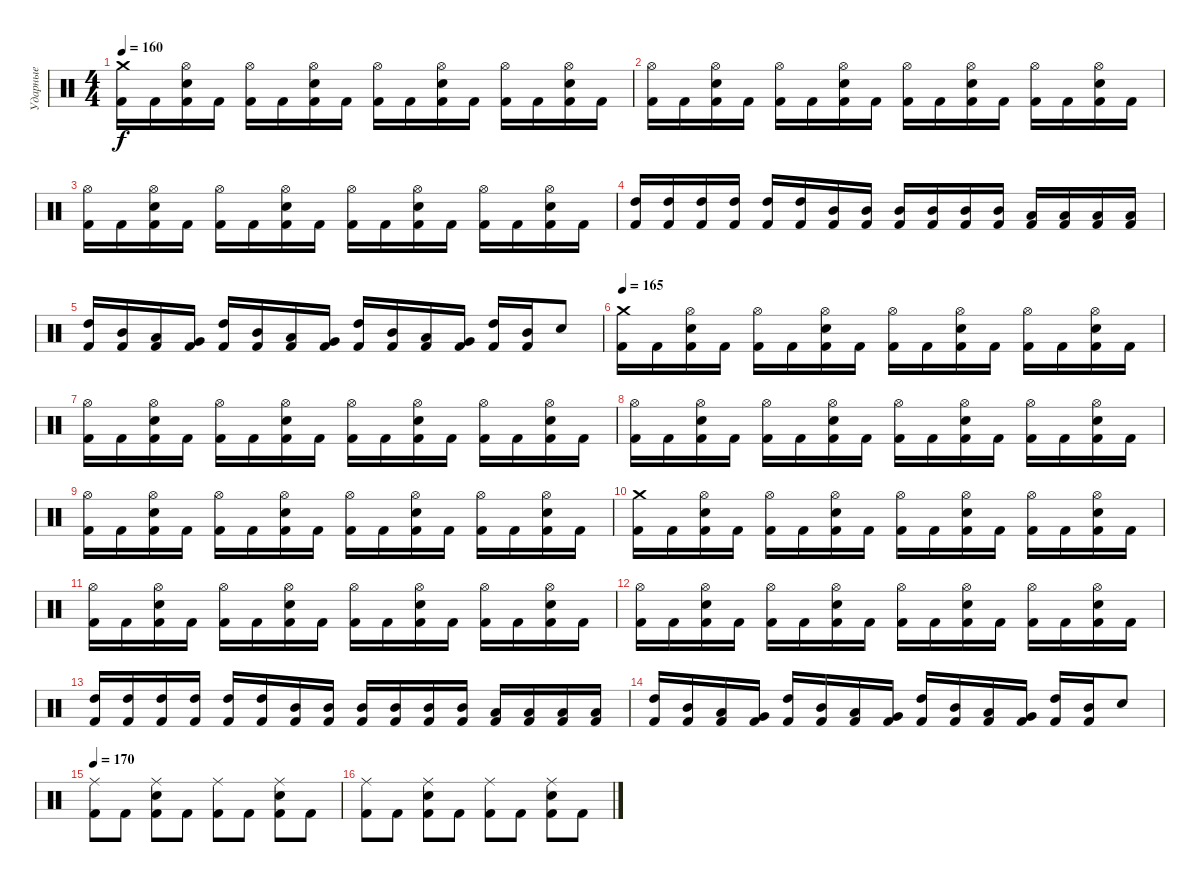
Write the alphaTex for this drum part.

\track ("Ударные" "Ударные") {instrument percussion}
\staff {score}
\articulation defaults
\ts (4 4)
\tempo 160
\clef neutral
\ks c
("Kick (hit) 2" "Crash medium (hit)").16{dy f} "Kick (hit) 2".16 ("Kick (hit) 2" "Electric Snare (hit)" "Hi-Hat (open)").16 "Kick (hit) 2".16 ("Kick (hit) 2" "Hi-Hat (open)").16 "Kick (hit) 2".16 ("Kick (hit) 2" "Electric Snare (hit)" "Hi-Hat (open)").16 "Kick (hit) 2".16 ("Kick (hit) 2" "Hi-Hat (open)").16 "Kick (hit) 2".16 ("Kick (hit) 2" "Electric Snare (hit)" "Hi-Hat (open)").16 "Kick (hit) 2".16 ("Kick (hit) 2" "Hi-Hat (open)").16 "Kick (hit) 2".16 ("Kick (hit) 2" "Electric Snare (hit)" "Hi-Hat (open)").16 "Kick (hit) 2".16 |
("Kick (hit) 2" "Hi-Hat (open)").16 "Kick (hit) 2".16 ("Kick (hit) 2" "Electric Snare (hit)" "Hi-Hat (open)").16 "Kick (hit) 2".16 ("Kick (hit) 2" "Hi-Hat (open)").16 "Kick (hit) 2".16 ("Kick (hit) 2" "Electric Snare (hit)" "Hi-Hat (open)").16 "Kick (hit) 2".16 ("Kick (hit) 2" "Hi-Hat (open)").16 "Kick (hit) 2".16 ("Kick (hit) 2" "Electric Snare (hit)" "Hi-Hat (open)").16 "Kick (hit) 2".16 ("Kick (hit) 2" "Hi-Hat (open)").16 "Kick (hit) 2".16 ("Kick (hit) 2" "Electric Snare (hit)" "Hi-Hat (open)").16 "Kick (hit) 2".16 |
("Kick (hit) 2" "Hi-Hat (open)").16 "Kick (hit) 2".16 ("Kick (hit) 2" "Electric Snare (hit)" "Hi-Hat (open)").16 "Kick (hit) 2".16 ("Kick (hit) 2" "Hi-Hat (open)").16 "Kick (hit) 2".16 ("Kick (hit) 2" "Electric Snare (hit)" "Hi-Hat (open)").16 "Kick (hit) 2".16 ("Kick (hit) 2" "Hi-Hat (open)").16 "Kick (hit) 2".16 ("Kick (hit) 2" "Electric Snare (hit)" "Hi-Hat (open)").16 "Kick (hit) 2".16 ("Kick (hit) 2" "Hi-Hat (open)").16 "Kick (hit) 2".16 ("Kick (hit) 2" "Electric Snare (hit)" "Hi-Hat (open)").16 "Kick (hit) 2".16 |
("Kick (hit) 2" "High Tom (hit)").16 ("Kick (hit) 2" "High Tom (hit)").16 ("Kick (hit) 2" "High Tom (hit)").16 ("Kick (hit) 2" "High Tom (hit)").16 ("Kick (hit) 2" "High Tom (hit)").16 ("Kick (hit) 2" "High Tom (hit)").16 ("Kick (hit) 2" "Mid Tom (hit)").16 ("Kick (hit) 2" "Mid Tom (hit)").16 ("Kick (hit) 2" "Mid Tom (hit)").16 ("Kick (hit) 2" "Mid Tom (hit)").16 ("Kick (hit) 2" "Mid Tom (hit)").16 ("Kick (hit) 2" "Mid Tom (hit)").16 ("Kick (hit) 2" "Low Tom (hit)").16 ("Kick (hit) 2" "Low Tom (hit)").16 ("Kick (hit) 2" "Low Tom (hit)").16 ("Kick (hit) 2" "Low Tom (hit)").16 |
("Kick (hit) 2" "High Tom (hit)").16 ("Kick (hit) 2" "Mid Tom (hit)").16 ("Kick (hit) 2" "Low Tom (hit)").16 ("Kick (hit) 2" "Very Low Tom (hit)").16 ("Kick (hit) 2" "High Tom (hit)").16 ("Kick (hit) 2" "Mid Tom (hit)").16 ("Kick (hit) 2" "Low Tom (hit)").16 ("Kick (hit) 2" "Very Low Tom (hit)").16 ("Kick (hit) 2" "High Tom (hit)").16 ("Kick (hit) 2" "Mid Tom (hit)").16 ("Kick (hit) 2" "Low Tom (hit)").16 ("Kick (hit) 2" "Very Low Tom (hit)").16 ("Kick (hit) 2" "High Tom (hit)").16 ("Kick (hit) 2" "Mid Tom (hit)").16 "Electric Snare (hit)".8 |
\tempo 165
("Kick (hit) 2" "Crash medium (hit)").16 "Kick (hit) 2".16 ("Kick (hit) 2" "Electric Snare (hit)" "Hi-Hat (open)").16 "Kick (hit) 2".16 ("Kick (hit) 2" "Hi-Hat (open)").16 "Kick (hit) 2".16 ("Kick (hit) 2" "Electric Snare (hit)" "Hi-Hat (open)").16 "Kick (hit) 2".16 ("Kick (hit) 2" "Hi-Hat (open)").16 "Kick (hit) 2".16 ("Kick (hit) 2" "Electric Snare (hit)" "Hi-Hat (open)").16 "Kick (hit) 2".16 ("Kick (hit) 2" "Hi-Hat (open)").16 "Kick (hit) 2".16 ("Kick (hit) 2" "Electric Snare (hit)" "Hi-Hat (open)").16 "Kick (hit) 2".16 |
("Kick (hit) 2" "Hi-Hat (open)").16 "Kick (hit) 2".16 ("Kick (hit) 2" "Electric Snare (hit)" "Hi-Hat (open)").16 "Kick (hit) 2".16 ("Kick (hit) 2" "Hi-Hat (open)").16 "Kick (hit) 2".16 ("Kick (hit) 2" "Electric Snare (hit)" "Hi-Hat (open)").16 "Kick (hit) 2".16 ("Kick (hit) 2" "Hi-Hat (open)").16 "Kick (hit) 2".16 ("Kick (hit) 2" "Electric Snare (hit)" "Hi-Hat (open)").16 "Kick (hit) 2".16 ("Kick (hit) 2" "Hi-Hat (open)").16 "Kick (hit) 2".16 ("Kick (hit) 2" "Electric Snare (hit)" "Hi-Hat (open)").16 "Kick (hit) 2".16 |
("Kick (hit) 2" "Hi-Hat (open)").16 "Kick (hit) 2".16 ("Kick (hit) 2" "Electric Snare (hit)" "Hi-Hat (open)").16 "Kick (hit) 2".16 ("Kick (hit) 2" "Hi-Hat (open)").16 "Kick (hit) 2".16 ("Kick (hit) 2" "Electric Snare (hit)" "Hi-Hat (open)").16 "Kick (hit) 2".16 ("Kick (hit) 2" "Hi-Hat (open)").16 "Kick (hit) 2".16 ("Kick (hit) 2" "Electric Snare (hit)" "Hi-Hat (open)").16 "Kick (hit) 2".16 ("Kick (hit) 2" "Hi-Hat (open)").16 "Kick (hit) 2".16 ("Kick (hit) 2" "Electric Snare (hit)" "Hi-Hat (open)").16 "Kick (hit) 2".16 |
("Kick (hit) 2" "Hi-Hat (open)").16 "Kick (hit) 2".16 ("Kick (hit) 2" "Electric Snare (hit)" "Hi-Hat (open)").16 "Kick (hit) 2".16 ("Kick (hit) 2" "Hi-Hat (open)").16 "Kick (hit) 2".16 ("Kick (hit) 2" "Electric Snare (hit)" "Hi-Hat (open)").16 "Kick (hit) 2".16 ("Kick (hit) 2" "Hi-Hat (open)").16 "Kick (hit) 2".16 ("Kick (hit) 2" "Electric Snare (hit)" "Hi-Hat (open)").16 "Kick (hit) 2".16 ("Kick (hit) 2" "Hi-Hat (open)").16 "Kick (hit) 2".16 ("Kick (hit) 2" "Electric Snare (hit)" "Hi-Hat (open)").16 "Kick (hit) 2".16 |
("Kick (hit) 2" "Crash medium (hit)").16 "Kick (hit) 2".16 ("Kick (hit) 2" "Electric Snare (hit)" "Hi-Hat (open)").16 "Kick (hit) 2".16 ("Kick (hit) 2" "Hi-Hat (open)").16 "Kick (hit) 2".16 ("Kick (hit) 2" "Electric Snare (hit)" "Hi-Hat (open)").16 "Kick (hit) 2".16 ("Kick (hit) 2" "Hi-Hat (open)").16 "Kick (hit) 2".16 ("Kick (hit) 2" "Electric Snare (hit)" "Hi-Hat (open)").16 "Kick (hit) 2".16 ("Kick (hit) 2" "Hi-Hat (open)").16 "Kick (hit) 2".16 ("Kick (hit) 2" "Electric Snare (hit)" "Hi-Hat (open)").16 "Kick (hit) 2".16 |
("Kick (hit) 2" "Hi-Hat (open)").16 "Kick (hit) 2".16 ("Kick (hit) 2" "Electric Snare (hit)" "Hi-Hat (open)").16 "Kick (hit) 2".16 ("Kick (hit) 2" "Hi-Hat (open)").16 "Kick (hit) 2".16 ("Kick (hit) 2" "Electric Snare (hit)" "Hi-Hat (open)").16 "Kick (hit) 2".16 ("Kick (hit) 2" "Hi-Hat (open)").16 "Kick (hit) 2".16 ("Kick (hit) 2" "Electric Snare (hit)" "Hi-Hat (open)").16 "Kick (hit) 2".16 ("Kick (hit) 2" "Hi-Hat (open)").16 "Kick (hit) 2".16 ("Kick (hit) 2" "Electric Snare (hit)" "Hi-Hat (open)").16 "Kick (hit) 2".16 |
("Kick (hit) 2" "Hi-Hat (open)").16 "Kick (hit) 2".16 ("Kick (hit) 2" "Electric Snare (hit)" "Hi-Hat (open)").16 "Kick (hit) 2".16 ("Kick (hit) 2" "Hi-Hat (open)").16 "Kick (hit) 2".16 ("Kick (hit) 2" "Electric Snare (hit)" "Hi-Hat (open)").16 "Kick (hit) 2".16 ("Kick (hit) 2" "Hi-Hat (open)").16 "Kick (hit) 2".16 ("Kick (hit) 2" "Electric Snare (hit)" "Hi-Hat (open)").16 "Kick (hit) 2".16 ("Kick (hit) 2" "Hi-Hat (open)").16 "Kick (hit) 2".16 ("Kick (hit) 2" "Electric Snare (hit)" "Hi-Hat (open)").16 "Kick (hit) 2".16 |
("Kick (hit) 2" "High Tom (hit)").16 ("Kick (hit) 2" "High Tom (hit)").16 ("Kick (hit) 2" "High Tom (hit)").16 ("Kick (hit) 2" "High Tom (hit)").16 ("Kick (hit) 2" "High Tom (hit)").16 ("Kick (hit) 2" "High Tom (hit)").16 ("Kick (hit) 2" "Mid Tom (hit)").16 ("Kick (hit) 2" "Mid Tom (hit)").16 ("Kick (hit) 2" "Mid Tom (hit)").16 ("Kick (hit) 2" "Mid Tom (hit)").16 ("Kick (hit) 2" "Mid Tom (hit)").16 ("Kick (hit) 2" "Mid Tom (hit)").16 ("Kick (hit) 2" "Low Tom (hit)").16 ("Kick (hit) 2" "Low Tom (hit)").16 ("Kick (hit) 2" "Low Tom (hit)").16 ("Kick (hit) 2" "Low Tom (hit)").16 |
("Kick (hit) 2" "High Tom (hit)").16 ("Kick (hit) 2" "Mid Tom (hit)").16 ("Kick (hit) 2" "Low Tom (hit)").16 ("Kick (hit) 2" "Very Low Tom (hit)").16 ("Kick (hit) 2" "High Tom (hit)").16 ("Kick (hit) 2" "Mid Tom (hit)").16 ("Kick (hit) 2" "Low Tom (hit)").16 ("Kick (hit) 2" "Very Low Tom (hit)").16 ("Kick (hit) 2" "High Tom (hit)").16 ("Kick (hit) 2" "Mid Tom (hit)").16 ("Kick (hit) 2" "Low Tom (hit)").16 ("Kick (hit) 2" "Very Low Tom (hit)").16 ("Kick (hit) 2" "High Tom (hit)").16 ("Kick (hit) 2" "Mid Tom (hit)").16 "Electric Snare (hit)".8 |
\tempo 170
("Kick (hit) 2" "Ride (middle)").8 "Kick (hit) 2".8 ("Kick (hit) 2" "Electric Snare (hit)" "Ride (middle)").8 "Kick (hit) 2".8 ("Kick (hit) 2" "Ride (middle)").8 "Kick (hit) 2".8 ("Kick (hit) 2" "Electric Snare (hit)" "Ride (middle)").8 "Kick (hit) 2".8 |
("Kick (hit) 2" "Ride (middle)").8 "Kick (hit) 2".8 ("Kick (hit) 2" "Electric Snare (hit)" "Ride (middle)").8 "Kick (hit) 2".8 ("Kick (hit) 2" "Ride (middle)").8 "Kick (hit) 2".8 ("Kick (hit) 2" "Electric Snare (hit)" "Ride (middle)").8 "Kick (hit) 2".8
